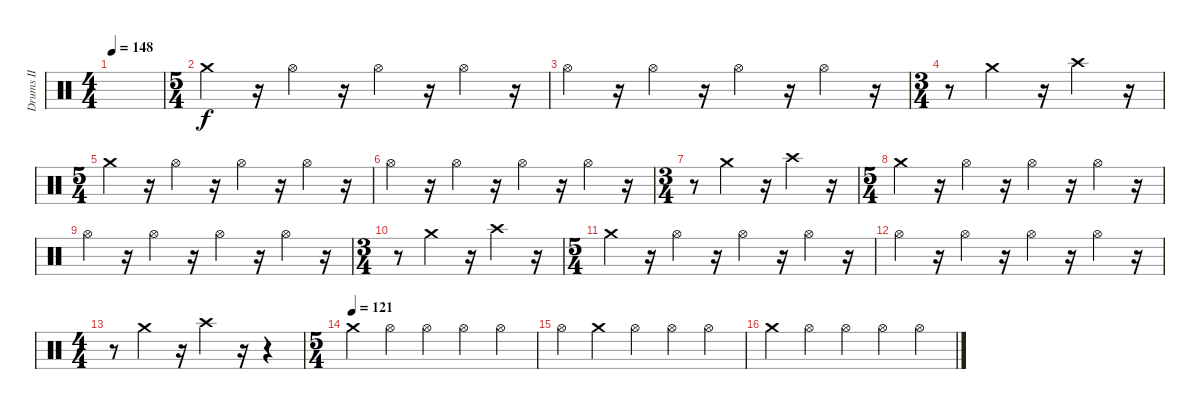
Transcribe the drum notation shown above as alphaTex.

\track ("Drums II" "Drums II") {instrument percussion}
\staff {score}
\articulation defaults
\ts (4 4)
\tempo 148
\clef neutral
\ks c
|
\ts (5 4)
"Crash medium (hit)".4 r.16 "Hi-Hat (open)".4 r.16 "Hi-Hat (open)".4 r.16 "Hi-Hat (open)".4 r.16 |
"Hi-Hat (open)".4 r.16 "Hi-Hat (open)".4 r.16 "Hi-Hat (open)".4 r.16 "Hi-Hat (open)".4 r.16 |
\ts (3 4)
r.8 "Crash medium (hit)".4 r.16 "Crash high (hit)".4 r.16 |
\ts (5 4)
"Crash medium (hit)".4 r.16 "Hi-Hat (open)".4 r.16 "Hi-Hat (open)".4 r.16 "Hi-Hat (open)".4 r.16 |
"Hi-Hat (open)".4 r.16 "Hi-Hat (open)".4 r.16 "Hi-Hat (open)".4 r.16 "Hi-Hat (open)".4 r.16 |
\ts (3 4)
r.8 "Crash medium (hit)".4 r.16 "Crash high (hit)".4 r.16 |
\ts (5 4)
"Crash medium (hit)".4 r.16 "Hi-Hat (open)".4 r.16 "Hi-Hat (open)".4 r.16 "Hi-Hat (open)".4 r.16 |
"Hi-Hat (open)".4 r.16 "Hi-Hat (open)".4 r.16 "Hi-Hat (open)".4 r.16 "Hi-Hat (open)".4 r.16 |
\ts (3 4)
r.8 "Crash medium (hit)".4 r.16 "Crash high (hit)".4 r.16 |
\ts (5 4)
"Crash medium (hit)".4 r.16 "Hi-Hat (open)".4 r.16 "Hi-Hat (open)".4 r.16 "Hi-Hat (open)".4 r.16 |
"Hi-Hat (open)".4 r.16 "Hi-Hat (open)".4 r.16 "Hi-Hat (open)".4 r.16 "Hi-Hat (open)".4 r.16 |
\ts (4 4)
r.8 "Crash medium (hit)".4 r.16 "Crash high (hit)".4 r.16 r.4 |
\ts (5 4)
\tempo (121)
"Crash medium (hit)".4 "Hi-Hat (open)".4 "Hi-Hat (open)".4 "Hi-Hat (open)".4 "Hi-Hat (open)".4 |
"Hi-Hat (open)".4 "Crash medium (hit)".4 "Hi-Hat (open)".4 "Hi-Hat (open)".4 "Hi-Hat (open)".4 |
"Crash medium (hit)".4 "Hi-Hat (open)".4 "Hi-Hat (open)".4 "Hi-Hat (open)".4 "Hi-Hat (open)".4
